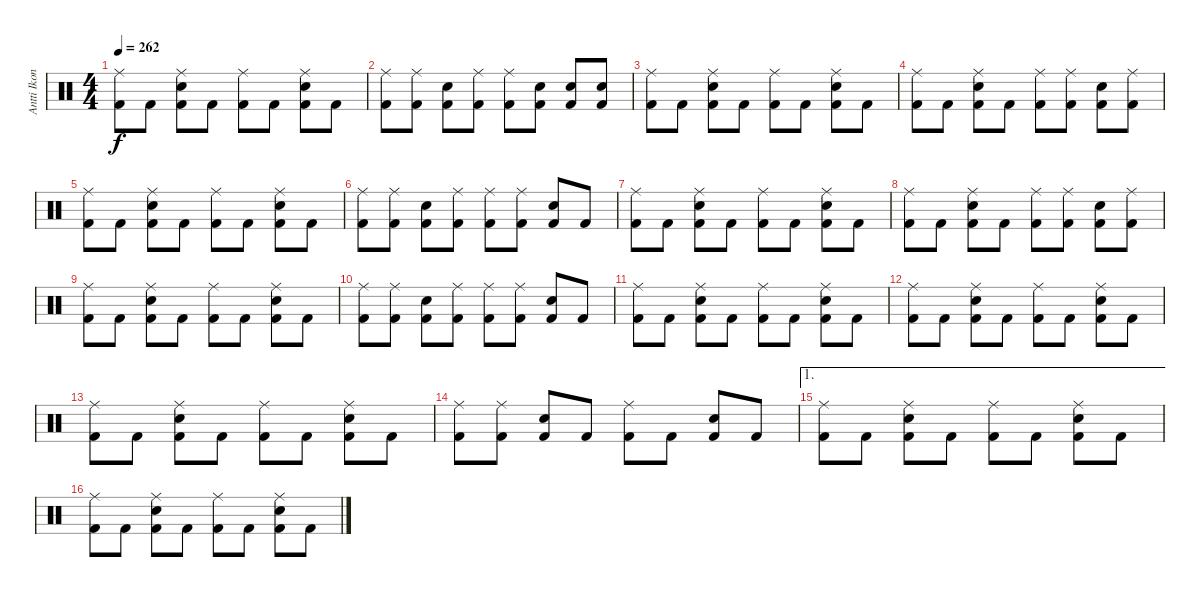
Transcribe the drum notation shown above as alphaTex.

\track ("Antti Ikonen" "Antti Ikon") {instrument percussion}
\staff {score}
\articulation defaults
\ts (4 4)
\tempo 262
\clef neutral
\ks c
("Ride (middle)" "Kick (hit) 2").8{dy f} "Kick (hit) 2".8 ("Ride (middle)" "Electric Snare (hit)" "Kick (hit) 2").8 "Kick (hit) 2".8 ("Ride (middle)" "Kick (hit) 2").8 "Kick (hit) 2".8 ("Ride (middle)" "Electric Snare (hit)" "Kick (hit) 2").8 "Kick (hit) 2".8 |
("Ride (middle)" "Kick (hit) 2").8 ("Ride (middle)" "Kick (hit) 2").8 ("Electric Snare (hit)" "Kick (hit) 2").8 ("Ride (middle)" "Kick (hit) 2").8 ("Ride (middle)" "Kick (hit) 2").8 ("Electric Snare (hit)" "Kick (hit) 2").8 ("Electric Snare (hit)" "Kick (hit) 2").8 ("Electric Snare (hit)" "Kick (hit) 2").8 |
("Ride (middle)" "Kick (hit) 2").8 "Kick (hit) 2".8 ("Ride (middle)" "Electric Snare (hit)" "Kick (hit) 2").8 "Kick (hit) 2".8 ("Ride (middle)" "Kick (hit) 2").8 "Kick (hit) 2".8 ("Ride (middle)" "Electric Snare (hit)" "Kick (hit) 2").8 "Kick (hit) 2".8 |
("Ride (middle)" "Kick (hit) 2").8 "Kick (hit) 2".8 ("Ride (middle)" "Electric Snare (hit)" "Kick (hit) 2").8 "Kick (hit) 2".8 ("Ride (middle)" "Kick (hit) 2").8 ("Ride (middle)" "Kick (hit) 2").8 ("Electric Snare (hit)" "Kick (hit) 2").8 ("Ride (middle)" "Kick (hit) 2").8 |
("Ride (middle)" "Kick (hit) 2").8 "Kick (hit) 2".8 ("Ride (middle)" "Electric Snare (hit)" "Kick (hit) 2").8 "Kick (hit) 2".8 ("Ride (middle)" "Kick (hit) 2").8 "Kick (hit) 2".8 ("Ride (middle)" "Electric Snare (hit)" "Kick (hit) 2").8 "Kick (hit) 2".8 |
("Ride (middle)" "Kick (hit) 2").8 ("Ride (middle)" "Kick (hit) 2").8 ("Electric Snare (hit)" "Kick (hit) 2").8 ("Ride (middle)" "Kick (hit) 2").8 ("Ride (middle)" "Kick (hit) 2").8 ("Ride (middle)" "Kick (hit) 2").8 ("Electric Snare (hit)" "Kick (hit) 2").8 "Kick (hit) 2".8 |
("Ride (middle)" "Kick (hit) 2").8 "Kick (hit) 2".8 ("Ride (middle)" "Electric Snare (hit)" "Kick (hit) 2").8 "Kick (hit) 2".8 ("Ride (middle)" "Kick (hit) 2").8 "Kick (hit) 2".8 ("Ride (middle)" "Electric Snare (hit)" "Kick (hit) 2").8 "Kick (hit) 2".8 |
("Ride (middle)" "Kick (hit) 2").8 "Kick (hit) 2".8 ("Ride (middle)" "Electric Snare (hit)" "Kick (hit) 2").8 "Kick (hit) 2".8 ("Ride (middle)" "Kick (hit) 2").8 ("Ride (middle)" "Kick (hit) 2").8 ("Electric Snare (hit)" "Kick (hit) 2").8 ("Ride (middle)" "Kick (hit) 2").8 |
("Ride (middle)" "Kick (hit) 2").8 "Kick (hit) 2".8 ("Ride (middle)" "Electric Snare (hit)" "Kick (hit) 2").8 "Kick (hit) 2".8 ("Ride (middle)" "Kick (hit) 2").8 "Kick (hit) 2".8 ("Ride (middle)" "Electric Snare (hit)" "Kick (hit) 2").8 "Kick (hit) 2".8 |
("Ride (middle)" "Kick (hit) 2").8 ("Ride (middle)" "Kick (hit) 2").8 ("Electric Snare (hit)" "Kick (hit) 2").8 ("Ride (middle)" "Kick (hit) 2").8 ("Ride (middle)" "Kick (hit) 2").8 ("Ride (middle)" "Kick (hit) 2").8 ("Electric Snare (hit)" "Kick (hit) 2").8 "Kick (hit) 2".8 |
("Ride (middle)" "Kick (hit) 2").8 "Kick (hit) 2".8 ("Ride (middle)" "Electric Snare (hit)" "Kick (hit) 2").8 "Kick (hit) 2".8 ("Ride (middle)" "Kick (hit) 2").8 "Kick (hit) 2".8 ("Ride (middle)" "Electric Snare (hit)" "Kick (hit) 2").8 "Kick (hit) 2".8 |
("Ride (middle)" "Kick (hit) 2").8 "Kick (hit) 2".8 ("Ride (middle)" "Electric Snare (hit)" "Kick (hit) 2").8 "Kick (hit) 2".8 ("Ride (middle)" "Kick (hit) 2").8 "Kick (hit) 2".8 ("Ride (middle)" "Electric Snare (hit)" "Kick (hit) 2").8 "Kick (hit) 2".8 |
("Ride (middle)" "Kick (hit) 2").8 "Kick (hit) 2".8 ("Ride (middle)" "Electric Snare (hit)" "Kick (hit) 2").8 "Kick (hit) 2".8 ("Ride (middle)" "Kick (hit) 2").8 "Kick (hit) 2".8 ("Ride (middle)" "Electric Snare (hit)" "Kick (hit) 2").8 "Kick (hit) 2".8 |
("Ride (middle)" "Kick (hit) 2").8 ("Ride (middle)" "Kick (hit) 2").8 ("Electric Snare (hit)" "Kick (hit) 2").8 "Kick (hit) 2".8 ("Ride (middle)" "Kick (hit) 2").8 "Kick (hit) 2".8 ("Electric Snare (hit)" "Kick (hit) 2").8 "Kick (hit) 2".8 |
\ae 1
("Ride (middle)" "Kick (hit) 2").8 "Kick (hit) 2".8 ("Ride (middle)" "Electric Snare (hit)" "Kick (hit) 2").8 "Kick (hit) 2".8 ("Ride (middle)" "Kick (hit) 2").8 "Kick (hit) 2".8 ("Ride (middle)" "Electric Snare (hit)" "Kick (hit) 2").8 "Kick (hit) 2".8 |
("Ride (middle)" "Kick (hit) 2").8 "Kick (hit) 2".8 ("Ride (middle)" "Electric Snare (hit)" "Kick (hit) 2").8 "Kick (hit) 2".8 ("Ride (middle)" "Kick (hit) 2").8 "Kick (hit) 2".8 ("Ride (middle)" "Electric Snare (hit)" "Kick (hit) 2").8 "Kick (hit) 2".8
